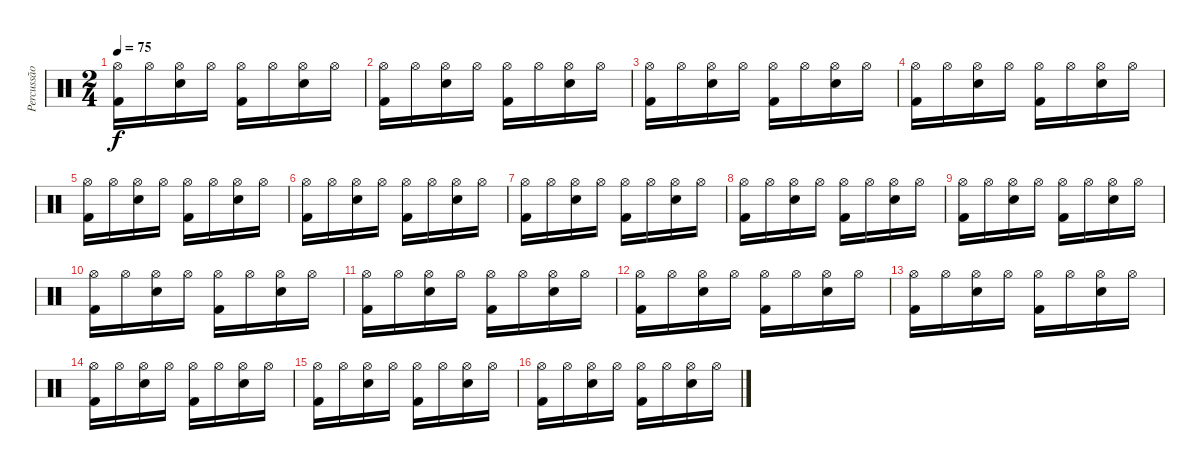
\track ("Percussão" "Percussão") {instrument percussion}
\staff {score}
\articulation defaults
\ts (2 4)
\tempo 75
\clef neutral
\ks c
("Hi-Hat (open)" "Kick (hit) 2").16{dy f} "Hi-Hat (open)".16 ("Hi-Hat (open)" "Snare (hit) 2").16 "Hi-Hat (open)".16 ("Hi-Hat (open)" "Kick (hit) 2").16 "Hi-Hat (open)".16 ("Hi-Hat (open)" "Snare (hit) 2").16 "Hi-Hat (open)".16 |
("Hi-Hat (open)" "Kick (hit) 2").16 "Hi-Hat (open)".16 ("Hi-Hat (open)" "Snare (hit) 2").16 "Hi-Hat (open)".16 ("Hi-Hat (open)" "Kick (hit) 2").16 "Hi-Hat (open)".16 ("Hi-Hat (open)" "Snare (hit) 2").16 "Hi-Hat (open)".16 |
("Hi-Hat (open)" "Kick (hit) 2").16 "Hi-Hat (open)".16 ("Hi-Hat (open)" "Snare (hit) 2").16 "Hi-Hat (open)".16 ("Hi-Hat (open)" "Kick (hit) 2").16 "Hi-Hat (open)".16 ("Hi-Hat (open)" "Snare (hit) 2").16 "Hi-Hat (open)".16 |
("Hi-Hat (open)" "Kick (hit) 2").16 "Hi-Hat (open)".16 ("Hi-Hat (open)" "Snare (hit) 2").16 "Hi-Hat (open)".16 ("Hi-Hat (open)" "Kick (hit) 2").16 "Hi-Hat (open)".16 ("Hi-Hat (open)" "Snare (hit) 2").16 "Hi-Hat (open)".16 |
("Hi-Hat (open)" "Kick (hit) 2").16 "Hi-Hat (open)".16 ("Hi-Hat (open)" "Snare (hit) 2").16 "Hi-Hat (open)".16 ("Hi-Hat (open)" "Kick (hit) 2").16 "Hi-Hat (open)".16 ("Hi-Hat (open)" "Snare (hit) 2").16 "Hi-Hat (open)".16 |
("Hi-Hat (open)" "Kick (hit) 2").16 "Hi-Hat (open)".16 ("Hi-Hat (open)" "Snare (hit) 2").16 "Hi-Hat (open)".16 ("Hi-Hat (open)" "Kick (hit) 2").16 "Hi-Hat (open)".16 ("Hi-Hat (open)" "Snare (hit) 2").16 "Hi-Hat (open)".16 |
("Hi-Hat (open)" "Kick (hit) 2").16 "Hi-Hat (open)".16 ("Hi-Hat (open)" "Snare (hit) 2").16 "Hi-Hat (open)".16 ("Hi-Hat (open)" "Kick (hit) 2").16 "Hi-Hat (open)".16 ("Hi-Hat (open)" "Snare (hit) 2").16 "Hi-Hat (open)".16 |
("Hi-Hat (open)" "Kick (hit) 2").16 "Hi-Hat (open)".16 ("Hi-Hat (open)" "Snare (hit) 2").16 "Hi-Hat (open)".16 ("Hi-Hat (open)" "Kick (hit) 2").16 "Hi-Hat (open)".16 ("Hi-Hat (open)" "Snare (hit) 2").16 "Hi-Hat (open)".16 |
("Hi-Hat (open)" "Kick (hit) 2").16 "Hi-Hat (open)".16 ("Hi-Hat (open)" "Snare (hit) 2").16 "Hi-Hat (open)".16 ("Hi-Hat (open)" "Kick (hit) 2").16 "Hi-Hat (open)".16 ("Hi-Hat (open)" "Snare (hit) 2").16 "Hi-Hat (open)".16 |
("Hi-Hat (open)" "Kick (hit) 2").16 "Hi-Hat (open)".16 ("Hi-Hat (open)" "Snare (hit) 2").16 "Hi-Hat (open)".16 ("Hi-Hat (open)" "Kick (hit) 2").16 "Hi-Hat (open)".16 ("Hi-Hat (open)" "Snare (hit) 2").16 "Hi-Hat (open)".16 |
("Hi-Hat (open)" "Kick (hit) 2").16 "Hi-Hat (open)".16 ("Hi-Hat (open)" "Snare (hit) 2").16 "Hi-Hat (open)".16 ("Hi-Hat (open)" "Kick (hit) 2").16 "Hi-Hat (open)".16 ("Hi-Hat (open)" "Snare (hit) 2").16 "Hi-Hat (open)".16 |
("Hi-Hat (open)" "Kick (hit) 2").16 "Hi-Hat (open)".16 ("Hi-Hat (open)" "Snare (hit) 2").16 "Hi-Hat (open)".16 ("Hi-Hat (open)" "Kick (hit) 2").16 "Hi-Hat (open)".16 ("Hi-Hat (open)" "Snare (hit) 2").16 "Hi-Hat (open)".16 |
("Hi-Hat (open)" "Kick (hit) 2").16 "Hi-Hat (open)".16 ("Hi-Hat (open)" "Snare (hit) 2").16 "Hi-Hat (open)".16 ("Hi-Hat (open)" "Kick (hit) 2").16 "Hi-Hat (open)".16 ("Hi-Hat (open)" "Snare (hit) 2").16 "Hi-Hat (open)".16 |
("Hi-Hat (open)" "Kick (hit) 2").16 "Hi-Hat (open)".16 ("Hi-Hat (open)" "Snare (hit) 2").16 "Hi-Hat (open)".16 ("Hi-Hat (open)" "Kick (hit) 2").16 "Hi-Hat (open)".16 ("Hi-Hat (open)" "Snare (hit) 2").16 "Hi-Hat (open)".16 |
("Hi-Hat (open)" "Kick (hit) 2").16 "Hi-Hat (open)".16 ("Hi-Hat (open)" "Snare (hit) 2").16 "Hi-Hat (open)".16 ("Hi-Hat (open)" "Kick (hit) 2").16 "Hi-Hat (open)".16 ("Hi-Hat (open)" "Snare (hit) 2").16 "Hi-Hat (open)".16 |
("Hi-Hat (open)" "Kick (hit) 2").16 "Hi-Hat (open)".16 ("Hi-Hat (open)" "Snare (hit) 2").16 "Hi-Hat (open)".16 ("Hi-Hat (open)" "Kick (hit) 2").16 "Hi-Hat (open)".16 ("Hi-Hat (open)" "Snare (hit) 2").16 "Hi-Hat (open)".16
